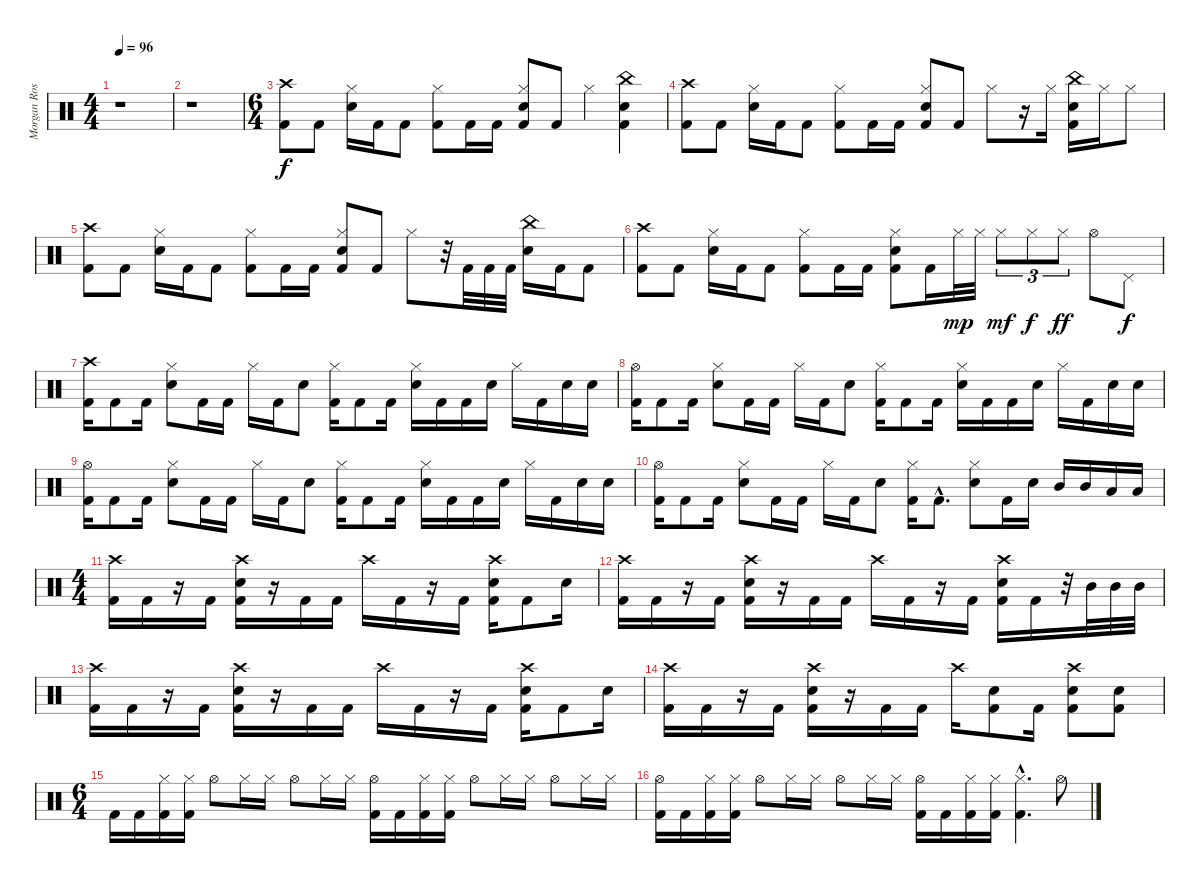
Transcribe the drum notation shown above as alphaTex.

\track ("Morgan Rose - Drums" "Morgan Ros") {instrument percussion}
\staff {score}
\articulation defaults
\ts (4 4)
\tempo 96
\clef neutral
\ks c
r.1{dy f} |
r.1 |
\ts (6 4)
("Crash high (hit)" "Kick (hit) 2").8 "Kick (hit) 2".8 ("Hi-Hat (closed)" "Electric Snare (hit)").16 "Kick (hit) 2".16 "Kick (hit) 2".8 ("Hi-Hat (closed)" "Kick (hit) 2").8 "Kick (hit) 2".16 "Kick (hit) 2".16 ("Hi-Hat (closed)" "Electric Snare (hit)" "Kick (hit) 2").8 "Kick (hit) 2".8 "Hi-Hat (closed)".4 ("China (hit)" "Electric Snare (hit)" "Kick (hit) 2").4 |
("Crash high (hit)" "Kick (hit) 2").8 "Kick (hit) 2".8 ("Hi-Hat (closed)" "Electric Snare (hit)").16 "Kick (hit) 2".16 "Kick (hit) 2".8 ("Hi-Hat (closed)" "Kick (hit) 2").8 "Kick (hit) 2".16 "Kick (hit) 2".16 ("Hi-Hat (closed)" "Electric Snare (hit)" "Kick (hit) 2").8 "Kick (hit) 2".8 "Hi-Hat (closed)".8 r.16 "Hi-Hat (closed)".16 ("China (hit)" "Electric Snare (hit)" "Kick (hit) 2").16 "Hi-Hat (closed)".16 "Hi-Hat (closed)".8 |
("Crash high (hit)" "Kick (hit) 2").8 "Kick (hit) 2".8 ("Hi-Hat (closed)" "Electric Snare (hit)").16 "Kick (hit) 2".16 "Kick (hit) 2".8 ("Hi-Hat (closed)" "Kick (hit) 2").8 "Kick (hit) 2".16 "Kick (hit) 2".16 ("Hi-Hat (closed)" "Electric Snare (hit)" "Kick (hit) 2").8 "Kick (hit) 2".8 "Hi-Hat (closed)".8 r.32 "Kick (hit) 2".32 "Kick (hit) 2".32 "Kick (hit) 2".32 ("China (hit)" "Electric Snare (hit)").16 "Kick (hit) 2".16 "Kick (hit) 2".8 |
("Crash high (hit)" "Kick (hit) 2").8 "Kick (hit) 2".8 ("Hi-Hat (closed)" "Electric Snare (hit)").16 "Kick (hit) 2".16 "Kick (hit) 2".8 ("Hi-Hat (closed)" "Kick (hit) 2").8 "Kick (hit) 2".16 "Kick (hit) 2".16 ("Hi-Hat (closed)" "Electric Snare (hit)" "Kick (hit) 2").8 "Kick (hit) 2".16 "Hi-Hat (closed)".32{dy mp} "Hi-Hat (closed)".32 "Hi-Hat (closed)".8{tu (3 2) dy mf} "Hi-Hat (closed)".8{tu (3 2) dy f} "Hi-Hat (closed)".8{tu (3 2) dy ff} "Hi-Hat (open)".8 "Pedal Hi-Hat (hit)".8{dy f} |
("Crash high (hit)" "Kick (hit) 2").16 "Kick (hit) 2".8 "Kick (hit) 2".16 ("Hi-Hat (closed)" "Electric Snare (hit)").8 "Kick (hit) 2".16 "Kick (hit) 2".16 "Hi-Hat (closed)".16 "Kick (hit) 2".16 "Electric Snare (hit)".8 ("Hi-Hat (closed)" "Kick (hit) 2").16 "Kick (hit) 2".8 "Kick (hit) 2".16 ("Hi-Hat (closed)" "Electric Snare (hit)").16 "Kick (hit) 2".16 "Kick (hit) 2".16 "Electric Snare (hit)".16 "Hi-Hat (closed)".16 "Kick (hit) 2".16 "Electric Snare (hit)".16 "Electric Snare (hit)".16 |
("Hi-Hat (open)" "Kick (hit) 2").16 "Kick (hit) 2".8 "Kick (hit) 2".16 ("Hi-Hat (closed)" "Electric Snare (hit)").8 "Kick (hit) 2".16 "Kick (hit) 2".16 "Hi-Hat (closed)".16 "Kick (hit) 2".16 "Electric Snare (hit)".8 ("Hi-Hat (closed)" "Kick (hit) 2").16 "Kick (hit) 2".8 "Kick (hit) 2".16 ("Hi-Hat (closed)" "Electric Snare (hit)").16 "Kick (hit) 2".16 "Kick (hit) 2".16 "Electric Snare (hit)".16 "Hi-Hat (closed)".16 "Kick (hit) 2".16 "Electric Snare (hit)".16 "Electric Snare (hit)".16 |
("Hi-Hat (open)" "Kick (hit) 2").16 "Kick (hit) 2".8 "Kick (hit) 2".16 ("Hi-Hat (closed)" "Electric Snare (hit)").8 "Kick (hit) 2".16 "Kick (hit) 2".16 "Hi-Hat (closed)".16 "Kick (hit) 2".16 "Electric Snare (hit)".8 ("Hi-Hat (closed)" "Kick (hit) 2").16 "Kick (hit) 2".8 "Kick (hit) 2".16 ("Hi-Hat (closed)" "Electric Snare (hit)").16 "Kick (hit) 2".16 "Kick (hit) 2".16 "Electric Snare (hit)".16 "Hi-Hat (closed)".16 "Kick (hit) 2".16 "Electric Snare (hit)".16 "Electric Snare (hit)".16 |
("Hi-Hat (open)" "Kick (hit) 2").16 "Kick (hit) 2".8 "Kick (hit) 2".16 ("Hi-Hat (closed)" "Electric Snare (hit)").8 "Kick (hit) 2".16 "Kick (hit) 2".16 "Hi-Hat (closed)".16 "Kick (hit) 2".16 "Electric Snare (hit)".8 ("Hi-Hat (closed)" "Kick (hit) 2").16 "Kick (hit) 2"{hac}.8{d} ("Hi-Hat (closed)" "Electric Snare (hit)").8 "Kick (hit) 2".16 "Electric Snare (hit)".16 "Mid Tom (hit)".16 "Mid Tom (hit)".16 "Low Tom (hit)".16 "Low Tom (hit)".16 |
\ts (4 4)
("Crash high (hit)" "Kick (hit) 2").16 "Kick (hit) 2".16 r.16 "Kick (hit) 2".16 ("Crash high (hit)" "Electric Snare (hit)" "Kick (hit) 2").16 r.16 "Kick (hit) 2".16 "Kick (hit) 2".16 "Crash high (hit)".16 "Kick (hit) 2".16 r.16 "Kick (hit) 2".16 ("Crash high (hit)" "Electric Snare (hit)" "Kick (hit) 2").16 "Kick (hit) 2".8 "Electric Snare (hit)".16 |
("Crash high (hit)" "Kick (hit) 2").16 "Kick (hit) 2".16 r.16 "Kick (hit) 2".16 ("Crash high (hit)" "Electric Snare (hit)" "Kick (hit) 2").16 r.16 "Kick (hit) 2".16 "Kick (hit) 2".16 "Crash high (hit)".16 "Kick (hit) 2".16 r.16 "Kick (hit) 2".16 ("Crash high (hit)" "Electric Snare (hit)" "Kick (hit) 2").16 "Kick (hit) 2".16 r.32 "Mid Tom (hit)".32 "Mid Tom (hit)".32 "Mid Tom (hit)".32 |
("Crash high (hit)" "Kick (hit) 2").16 "Kick (hit) 2".16 r.16 "Kick (hit) 2".16 ("Crash high (hit)" "Electric Snare (hit)" "Kick (hit) 2").16 r.16 "Kick (hit) 2".16 "Kick (hit) 2".16 "Crash high (hit)".16 "Kick (hit) 2".16 r.16 "Kick (hit) 2".16 ("Crash high (hit)" "Electric Snare (hit)" "Kick (hit) 2").16 "Kick (hit) 2".8 "Electric Snare (hit)".16 |
("Crash high (hit)" "Kick (hit) 2").16 "Kick (hit) 2".16 r.16 "Kick (hit) 2".16 ("Crash high (hit)" "Electric Snare (hit)" "Kick (hit) 2").16 r.16 "Kick (hit) 2".16 "Kick (hit) 2".16 "Crash high (hit)".16 ("Electric Snare (hit)" "Kick (hit) 2").8 "Kick (hit) 2".16 ("Crash high (hit)" "Electric Snare (hit)" "Kick (hit) 2").8 ("Electric Snare (hit)" "Kick (hit) 2").8 |
\ts (6 4)
"Kick (hit) 2".16 "Kick (hit) 2".16 ("Hi-Hat (closed)" "Kick (hit) 2").16 ("Hi-Hat (closed)" "Kick (hit) 2").16 "Hi-Hat (open)".8 "Hi-Hat (closed)".16 "Hi-Hat (closed)".16 "Hi-Hat (open)".8 "Hi-Hat (closed)".16 "Hi-Hat (closed)".16 ("Hi-Hat (open)" "Kick (hit) 2").16 "Kick (hit) 2".16 ("Hi-Hat (closed)" "Kick (hit) 2").16 ("Hi-Hat (closed)" "Kick (hit) 2").16 "Hi-Hat (open)".8 "Hi-Hat (closed)".16 "Hi-Hat (closed)".16 "Hi-Hat (open)".8 "Hi-Hat (closed)".16 "Hi-Hat (closed)".16 |
("Hi-Hat (open)" "Kick (hit) 2").16 "Kick (hit) 2".16 ("Hi-Hat (closed)" "Kick (hit) 2").16 ("Hi-Hat (closed)" "Kick (hit) 2").16 "Hi-Hat (open)".8 "Hi-Hat (closed)".16 "Hi-Hat (closed)".16 "Hi-Hat (open)".8 "Hi-Hat (closed)".16 "Hi-Hat (closed)".16 ("Hi-Hat (open)" "Kick (hit) 2").16 "Kick (hit) 2".16 ("Hi-Hat (closed)" "Kick (hit) 2").16 ("Hi-Hat (closed)" "Kick (hit) 2").16 ("Hi-Hat (closed)"{hac} "Kick (hit) 2"{hac}).4{d} "Hi-Hat (open)".8
